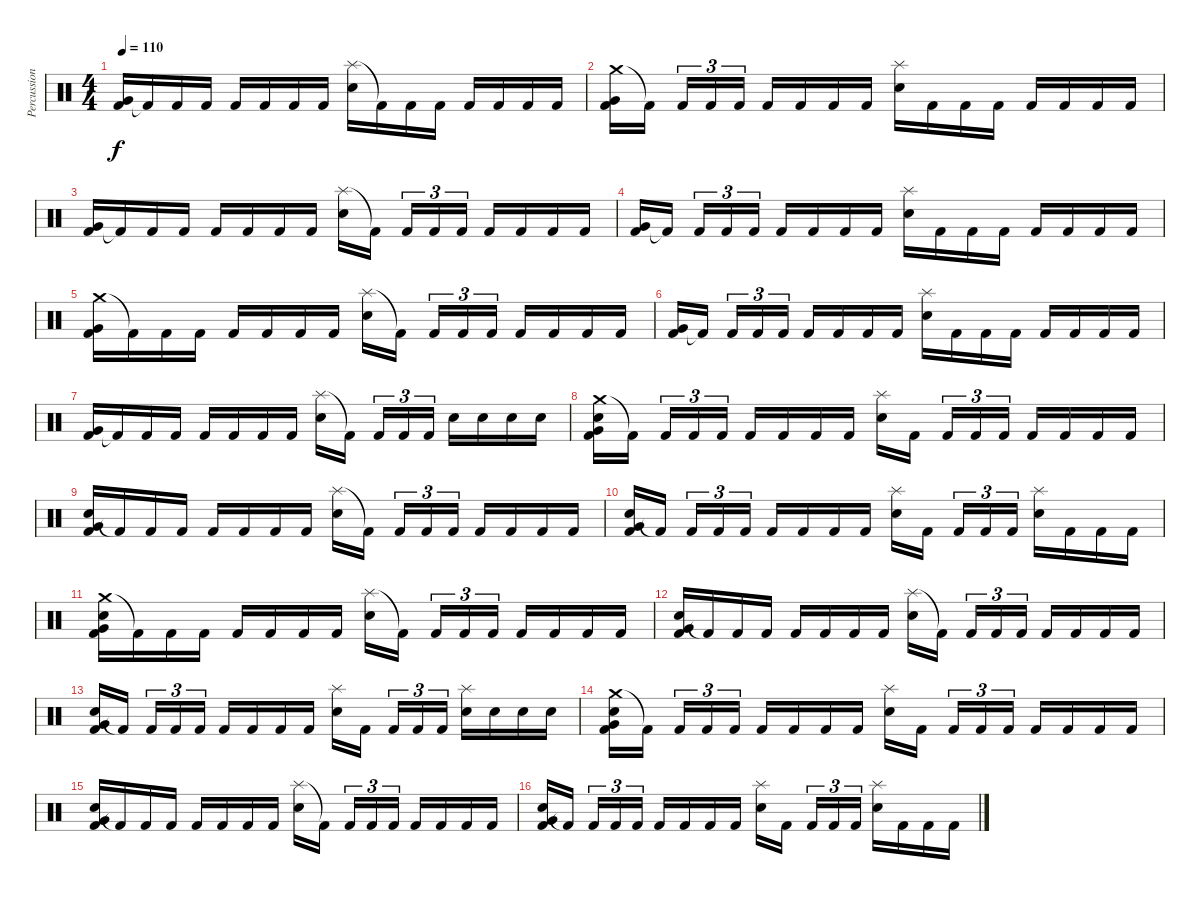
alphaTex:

\track ("Percussion" "Percussion") {instrument percussion}
\staff {score}
\articulation defaults
\ts (4 4)
\tempo 110
\clef neutral
\ks c
("Very Low Tom (hit)" "Kick (hit) 2").16{dy f} "Kick (hit) 2"{t}.16 "Kick (hit) 2".16 "Kick (hit) 2".16 "Kick (hit) 2".16 "Kick (hit) 2".16 "Kick (hit) 2".16 "Kick (hit) 2".16 ("Splash (hit)" "Electric Snare (hit)").16 "Kick (hit) 2"{t}.16 "Kick (hit) 2".16 "Kick (hit) 2".16 "Kick (hit) 2".16 "Kick (hit) 2".16 "Kick (hit) 2".16 "Kick (hit) 2".16 |
("Crash medium (hit)" "Very Low Tom (hit)" "Kick (hit) 2").16 "Kick (hit) 2"{t}.16 "Kick (hit) 2".16{tu (3 2)} "Kick (hit) 2".16{tu (3 2)} "Kick (hit) 2".16{tu (3 2)} "Kick (hit) 2".16 "Kick (hit) 2".16 "Kick (hit) 2".16 "Kick (hit) 2".16 ("Splash (hit)" "Electric Snare (hit)").16 "Kick (hit) 2".16 "Kick (hit) 2".16 "Kick (hit) 2".16 "Kick (hit) 2".16 "Kick (hit) 2".16 "Kick (hit) 2".16 "Kick (hit) 2".16 |
("Very Low Tom (hit)" "Kick (hit) 2").16 "Kick (hit) 2"{t}.16 "Kick (hit) 2".16 "Kick (hit) 2".16 "Kick (hit) 2".16 "Kick (hit) 2".16 "Kick (hit) 2".16 "Kick (hit) 2".16 ("Splash (hit)" "Electric Snare (hit)").16 "Kick (hit) 2"{t}.16 "Kick (hit) 2".16{tu (3 2)} "Kick (hit) 2".16{tu (3 2)} "Kick (hit) 2".16{tu (3 2)} "Kick (hit) 2".16 "Kick (hit) 2".16 "Kick (hit) 2".16 "Kick (hit) 2".16 |
("Very Low Tom (hit)" "Kick (hit) 2").16 "Kick (hit) 2"{t}.16 "Kick (hit) 2".16{tu (3 2)} "Kick (hit) 2".16{tu (3 2)} "Kick (hit) 2".16{tu (3 2)} "Kick (hit) 2".16 "Kick (hit) 2".16 "Kick (hit) 2".16 "Kick (hit) 2".16 ("Splash (hit)" "Electric Snare (hit)").16 "Kick (hit) 2".16 "Kick (hit) 2".16 "Kick (hit) 2".16 "Kick (hit) 2".16 "Kick (hit) 2".16 "Kick (hit) 2".16 "Kick (hit) 2".16 |
("Crash medium (hit)" "Very Low Tom (hit)" "Kick (hit) 2").16 "Kick (hit) 2"{t}.16 "Kick (hit) 2".16 "Kick (hit) 2".16 "Kick (hit) 2".16 "Kick (hit) 2".16 "Kick (hit) 2".16 "Kick (hit) 2".16 ("Splash (hit)" "Electric Snare (hit)").16 "Kick (hit) 2"{t}.16 "Kick (hit) 2".16{tu (3 2)} "Kick (hit) 2".16{tu (3 2)} "Kick (hit) 2".16{tu (3 2)} "Kick (hit) 2".16 "Kick (hit) 2".16 "Kick (hit) 2".16 "Kick (hit) 2".16 |
("Very Low Tom (hit)" "Kick (hit) 2").16 "Kick (hit) 2"{t}.16 "Kick (hit) 2".16{tu (3 2)} "Kick (hit) 2".16{tu (3 2)} "Kick (hit) 2".16{tu (3 2)} "Kick (hit) 2".16 "Kick (hit) 2".16 "Kick (hit) 2".16 "Kick (hit) 2".16 ("Splash (hit)" "Electric Snare (hit)").16 "Kick (hit) 2".16 "Kick (hit) 2".16 "Kick (hit) 2".16 "Kick (hit) 2".16 "Kick (hit) 2".16 "Kick (hit) 2".16 "Kick (hit) 2".16 |
("Very Low Tom (hit)" "Kick (hit) 2").16 "Kick (hit) 2"{t}.16 "Kick (hit) 2".16 "Kick (hit) 2".16 "Kick (hit) 2".16 "Kick (hit) 2".16 "Kick (hit) 2".16 "Kick (hit) 2".16 ("Splash (hit)" "Electric Snare (hit)").16 "Kick (hit) 2"{t}.16 "Kick (hit) 2".16{tu (3 2)} "Kick (hit) 2".16{tu (3 2)} "Kick (hit) 2".16{tu (3 2)} "Electric Snare (hit)".16 "Electric Snare (hit)".16 "Electric Snare (hit)".16 "Electric Snare (hit)".16 |
("Crash medium (hit)" "Electric Snare (hit)" "Very Low Tom (hit)" "Kick (hit) 2").16 "Kick (hit) 2"{t}.16 "Kick (hit) 2".16{tu (3 2)} "Kick (hit) 2".16{tu (3 2)} "Kick (hit) 2".16{tu (3 2)} "Kick (hit) 2".16 "Kick (hit) 2".16 "Kick (hit) 2".16 "Kick (hit) 2".16 ("Splash (hit)" "Electric Snare (hit)").16 "Kick (hit) 2".16 "Kick (hit) 2".16{tu (3 2)} "Kick (hit) 2".16{tu (3 2)} "Kick (hit) 2".16{tu (3 2)} "Kick (hit) 2".16 "Kick (hit) 2".16 "Kick (hit) 2".16 "Kick (hit) 2".16 |
("Electric Snare (hit)" "Very Low Tom (hit)" "Kick (hit) 2").16 "Kick (hit) 2"{t}.16 "Kick (hit) 2".16 "Kick (hit) 2".16 "Kick (hit) 2".16 "Kick (hit) 2".16 "Kick (hit) 2".16 "Kick (hit) 2".16 ("Splash (hit)" "Electric Snare (hit)").16 "Kick (hit) 2"{t}.16 "Kick (hit) 2".16{tu (3 2)} "Kick (hit) 2".16{tu (3 2)} "Kick (hit) 2".16{tu (3 2)} "Kick (hit) 2".16 "Kick (hit) 2".16 "Kick (hit) 2".16 "Kick (hit) 2".16 |
("Electric Snare (hit)" "Very Low Tom (hit)" "Kick (hit) 2").16 "Kick (hit) 2"{t}.16 "Kick (hit) 2".16{tu (3 2)} "Kick (hit) 2".16{tu (3 2)} "Kick (hit) 2".16{tu (3 2)} "Kick (hit) 2".16 "Kick (hit) 2".16 "Kick (hit) 2".16 "Kick (hit) 2".16 ("Splash (hit)" "Electric Snare (hit)").16 "Kick (hit) 2".16 "Kick (hit) 2".16{tu (3 2)} "Kick (hit) 2".16{tu (3 2)} "Kick (hit) 2".16{tu (3 2)} ("Splash (hit)" "Electric Snare (hit)").16 "Kick (hit) 2".16 "Kick (hit) 2".16 "Kick (hit) 2".16 |
("Crash medium (hit)" "Electric Snare (hit)" "Very Low Tom (hit)" "Kick (hit) 2").16 "Kick (hit) 2"{t}.16 "Kick (hit) 2".16 "Kick (hit) 2".16 "Kick (hit) 2".16 "Kick (hit) 2".16 "Kick (hit) 2".16 "Kick (hit) 2".16 ("Splash (hit)" "Electric Snare (hit)").16 "Kick (hit) 2"{t}.16 "Kick (hit) 2".16{tu (3 2)} "Kick (hit) 2".16{tu (3 2)} "Kick (hit) 2".16{tu (3 2)} "Kick (hit) 2".16 "Kick (hit) 2".16 "Kick (hit) 2".16 "Kick (hit) 2".16 |
("Electric Snare (hit)" "Very Low Tom (hit)" "Kick (hit) 2").16 "Kick (hit) 2"{t}.16 "Kick (hit) 2".16 "Kick (hit) 2".16 "Kick (hit) 2".16 "Kick (hit) 2".16 "Kick (hit) 2".16 "Kick (hit) 2".16 ("Splash (hit)" "Electric Snare (hit)").16 "Kick (hit) 2"{t}.16 "Kick (hit) 2".16{tu (3 2)} "Kick (hit) 2".16{tu (3 2)} "Kick (hit) 2".16{tu (3 2)} "Kick (hit) 2".16 "Kick (hit) 2".16 "Kick (hit) 2".16 "Kick (hit) 2".16 |
("Electric Snare (hit)" "Very Low Tom (hit)" "Kick (hit) 2").16 "Kick (hit) 2"{t}.16 "Kick (hit) 2".16{tu (3 2)} "Kick (hit) 2".16{tu (3 2)} "Kick (hit) 2".16{tu (3 2)} "Kick (hit) 2".16 "Kick (hit) 2".16 "Kick (hit) 2".16 "Kick (hit) 2".16 ("Splash (hit)" "Electric Snare (hit)").16 "Kick (hit) 2".16 "Kick (hit) 2".16{tu (3 2)} "Kick (hit) 2".16{tu (3 2)} "Kick (hit) 2".16{tu (3 2)} ("Splash (hit)" "Electric Snare (hit)").16 "Electric Snare (hit)".16 "Electric Snare (hit)".16 "Electric Snare (hit)".16 |
("Crash medium (hit)" "Electric Snare (hit)" "Very Low Tom (hit)" "Kick (hit) 2").16 "Kick (hit) 2"{t}.16 "Kick (hit) 2".16{tu (3 2)} "Kick (hit) 2".16{tu (3 2)} "Kick (hit) 2".16{tu (3 2)} "Kick (hit) 2".16 "Kick (hit) 2".16 "Kick (hit) 2".16 "Kick (hit) 2".16 ("Splash (hit)" "Electric Snare (hit)").16 "Kick (hit) 2".16 "Kick (hit) 2".16{tu (3 2)} "Kick (hit) 2".16{tu (3 2)} "Kick (hit) 2".16{tu (3 2)} "Kick (hit) 2".16 "Kick (hit) 2".16 "Kick (hit) 2".16 "Kick (hit) 2".16 |
("Electric Snare (hit)" "Very Low Tom (hit)" "Kick (hit) 2").16 "Kick (hit) 2"{t}.16 "Kick (hit) 2".16 "Kick (hit) 2".16 "Kick (hit) 2".16 "Kick (hit) 2".16 "Kick (hit) 2".16 "Kick (hit) 2".16 ("Splash (hit)" "Electric Snare (hit)").16 "Kick (hit) 2"{t}.16 "Kick (hit) 2".16{tu (3 2)} "Kick (hit) 2".16{tu (3 2)} "Kick (hit) 2".16{tu (3 2)} "Kick (hit) 2".16 "Kick (hit) 2".16 "Kick (hit) 2".16 "Kick (hit) 2".16 |
("Electric Snare (hit)" "Very Low Tom (hit)" "Kick (hit) 2").16 "Kick (hit) 2"{t}.16 "Kick (hit) 2".16{tu (3 2)} "Kick (hit) 2".16{tu (3 2)} "Kick (hit) 2".16{tu (3 2)} "Kick (hit) 2".16 "Kick (hit) 2".16 "Kick (hit) 2".16 "Kick (hit) 2".16 ("Splash (hit)" "Electric Snare (hit)").16 "Kick (hit) 2".16 "Kick (hit) 2".16{tu (3 2)} "Kick (hit) 2".16{tu (3 2)} "Kick (hit) 2".16{tu (3 2)} ("Splash (hit)" "Electric Snare (hit)").16 "Kick (hit) 2".16 "Kick (hit) 2".16 "Kick (hit) 2".16
